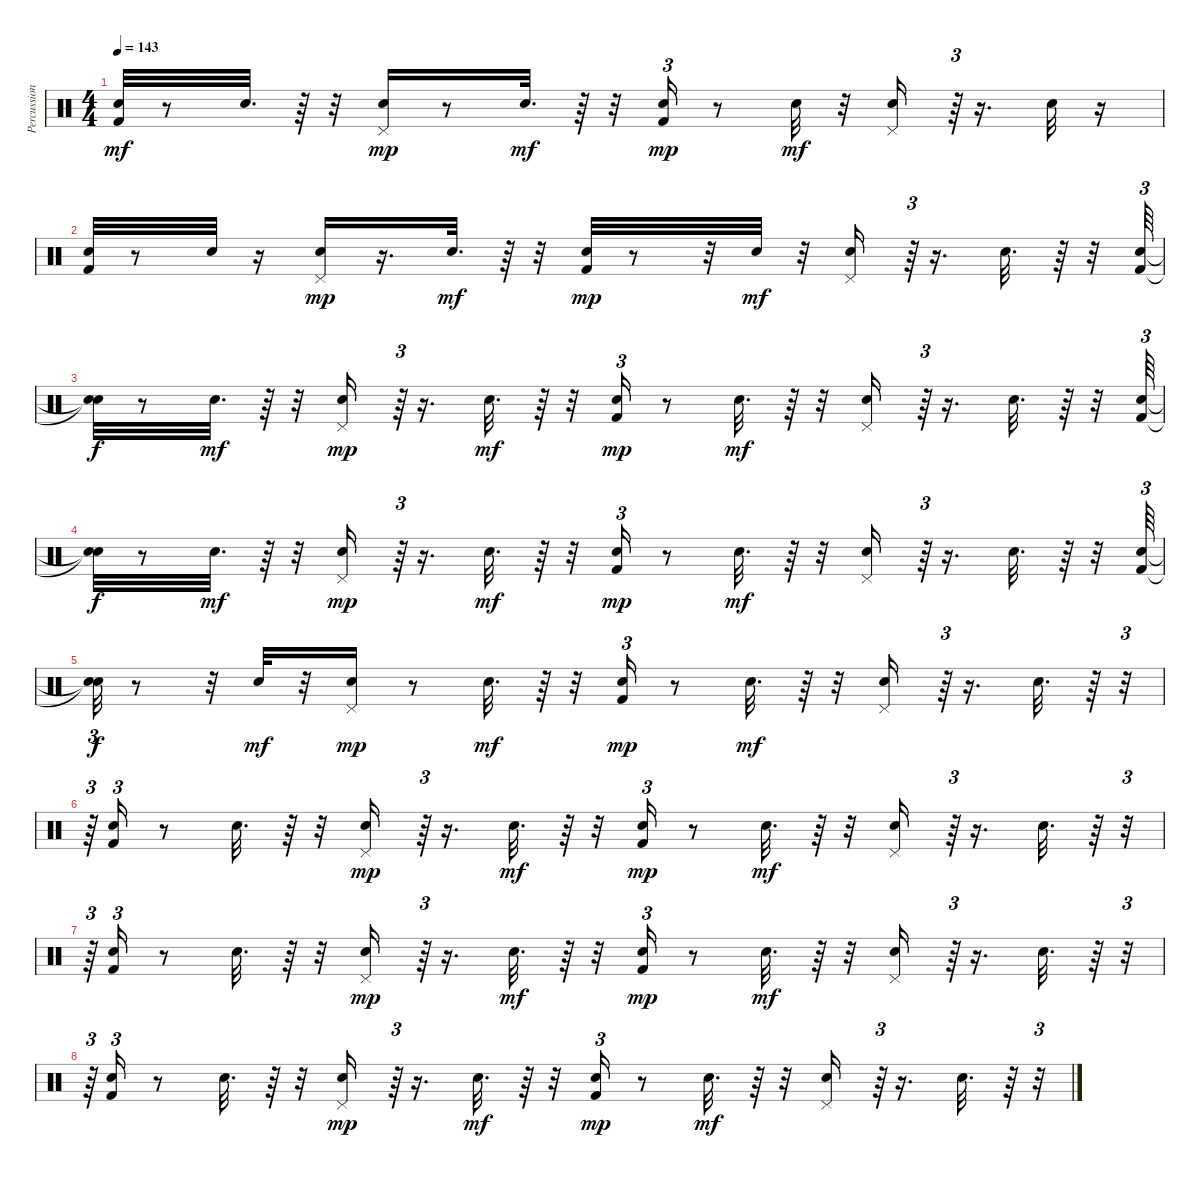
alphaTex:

\track ("Percussion" "Percussion") {instrument percussion}
\staff {score}
\articulation defaults
\ts (4 4)
\tempo 143
\clef neutral
\ks c
("Kick (hit) 2" "Snare (hit) 2").32{dy mf} r.8 "Snare (hit) 2".32{d} r.64 r.32 ("Pedal Hi-Hat (hit)" "Hand Clap (hit)").16{dy mp} r.8 "Hand Clap (hit)".32{d dy mf} r.64 r.32 ("Kick (hit) 2" "Snare (hit) 2").16{tu (3 2) dy mp} r.8 "Snare (hit) 2".32{dy mf} r.32 ("Pedal Hi-Hat (hit)" "Hand Clap (hit)").16 r.64{tu (3 2)} r.16{d} "Hand Clap (hit)".32 r.16 |
("Kick (hit) 2" "Snare (hit) 2").32 r.8 "Snare (hit) 2".32 r.16 ("Hand Clap (hit)" "Pedal Hi-Hat (hit)").16{dy mp} r.16{d} "Hand Clap (hit)".32{d dy mf} r.64 r.32 ("Kick (hit) 2" "Snare (hit) 2").32{dy mp} r.8 r.32 "Snare (hit) 2".32{dy mf} r.32 ("Hand Clap (hit)" "Pedal Hi-Hat (hit)").16 r.64{tu (3 2)} r.16{d} "Hand Clap (hit)".32{d} r.64 r.32 ("Kick (hit) 2" "Snare (hit) 2").64{tu (3 2)} |
("Snare (hit)"{t} "Snare (hit)"{t}).32{dy f} r.8 "Snare (hit) 2".32{d dy mf} r.64 r.32 ("Hand Clap (hit)" "Pedal Hi-Hat (hit)").16{dy mp} r.64{tu (3 2)} r.16{d} "Hand Clap (hit)".32{d dy mf} r.64 r.32 ("Kick (hit) 2" "Snare (hit) 2").16{tu (3 2) dy mp} r.8 "Snare (hit) 2".32{d dy mf} r.64 r.32 ("Hand Clap (hit)" "Pedal Hi-Hat (hit)").16 r.64{tu (3 2)} r.16{d} "Hand Clap (hit)".32{d} r.64 r.32 ("Kick (hit) 2" "Snare (hit) 2").64{tu (3 2)} |
("Snare (hit)"{t} "Snare (hit)"{t}).32{dy f} r.8 "Snare (hit) 2".32{d dy mf} r.64 r.32 ("Hand Clap (hit)" "Pedal Hi-Hat (hit)").16{dy mp} r.64{tu (3 2)} r.16{d} "Hand Clap (hit)".32{d dy mf} r.64 r.32 ("Kick (hit) 2" "Snare (hit) 2").16{tu (3 2) dy mp} r.8 "Snare (hit) 2".32{d dy mf} r.64 r.32 ("Hand Clap (hit)" "Pedal Hi-Hat (hit)").16 r.64{tu (3 2)} r.16{d} "Hand Clap (hit)".32{d} r.64 r.32 ("Kick (hit) 2" "Snare (hit) 2").64{tu (3 2)} |
("Snare (hit)"{t} "Snare (hit)"{t}).32{tu (3 2) dy f} r.8 r.32 "Snare (hit) 2".32{dy mf} r.32 ("Pedal Hi-Hat (hit)" "Hand Clap (hit)").16{dy mp} r.8 "Hand Clap (hit)".32{d dy mf} r.64 r.32 ("Kick (hit) 2" "Snare (hit) 2").16{tu (3 2) dy mp} r.8 "Snare (hit) 2".32{d dy mf} r.64 r.32 ("Hand Clap (hit)" "Pedal Hi-Hat (hit)").16 r.64{tu (3 2)} r.16{d} "Hand Clap (hit)".32{d} r.64 r.32{tu (3 2)} |
r.64{tu (3 2)} ("Kick (hit) 2" "Snare (hit) 2").16{tu (3 2)} r.8 "Snare (hit) 2".32{d} r.64 r.32 ("Hand Clap (hit)" "Pedal Hi-Hat (hit)").16{dy mp} r.64{tu (3 2)} r.16{d} "Hand Clap (hit)".32{d dy mf} r.64 r.32 ("Kick (hit) 2" "Snare (hit) 2").16{tu (3 2) dy mp} r.8 "Snare (hit) 2".32{d dy mf} r.64 r.32 ("Hand Clap (hit)" "Pedal Hi-Hat (hit)").16 r.64{tu (3 2)} r.16{d} "Hand Clap (hit)".32{d} r.64 r.32{tu (3 2)} |
r.64{tu (3 2)} ("Kick (hit) 2" "Snare (hit) 2").16{tu (3 2)} r.8 "Snare (hit) 2".32{d} r.64 r.32 ("Hand Clap (hit)" "Pedal Hi-Hat (hit)").16{dy mp} r.64{tu (3 2)} r.16{d} "Hand Clap (hit)".32{d dy mf} r.64 r.32 ("Kick (hit) 2" "Snare (hit) 2").16{tu (3 2) dy mp} r.8 "Snare (hit) 2".32{d dy mf} r.64 r.32 ("Hand Clap (hit)" "Pedal Hi-Hat (hit)").16 r.64{tu (3 2)} r.16{d} "Hand Clap (hit)".32{d} r.64 r.32{tu (3 2)} |
r.64{tu (3 2)} ("Kick (hit) 2" "Snare (hit) 2").16{tu (3 2)} r.8 "Snare (hit) 2".32{d} r.64 r.32 ("Hand Clap (hit)" "Pedal Hi-Hat (hit)").16{dy mp} r.64{tu (3 2)} r.16{d} "Hand Clap (hit)".32{d dy mf} r.64 r.32 ("Kick (hit) 2" "Snare (hit) 2").16{tu (3 2) dy mp} r.8 "Snare (hit) 2".32{d dy mf} r.64 r.32 ("Hand Clap (hit)" "Pedal Hi-Hat (hit)").16 r.64{tu (3 2)} r.16{d} "Hand Clap (hit)".32{d} r.64 r.32{tu (3 2)}
